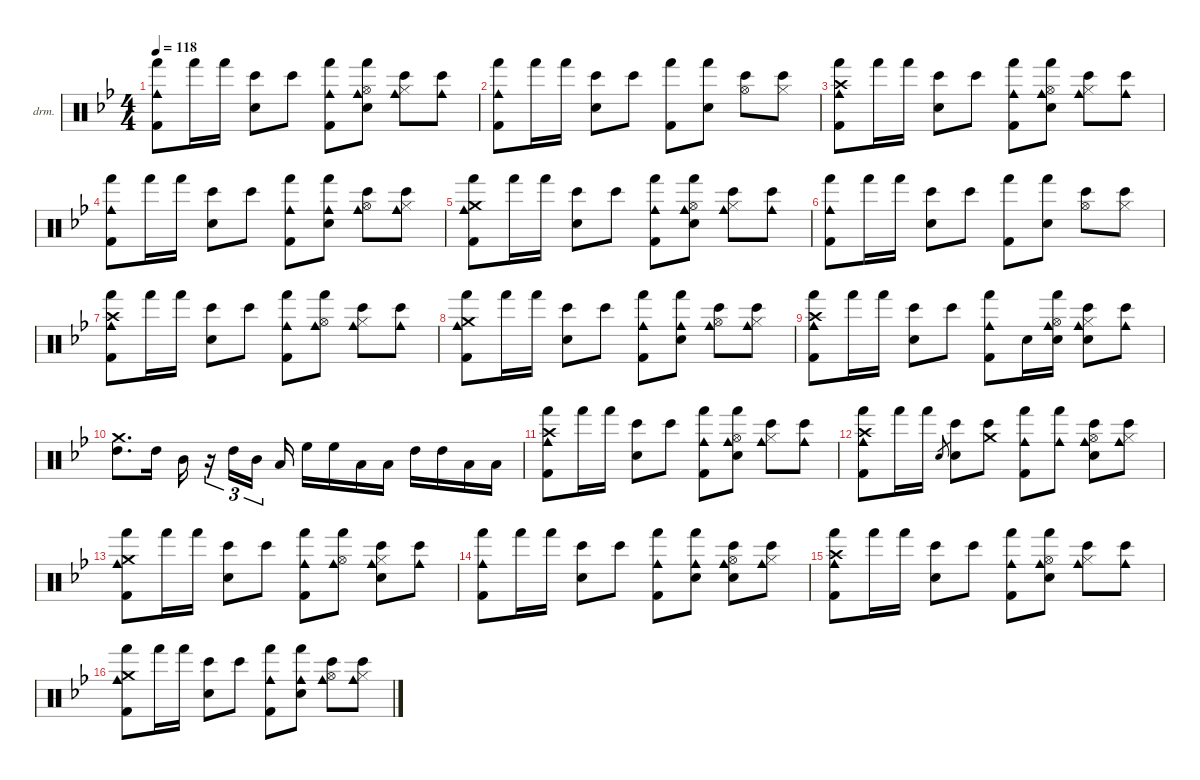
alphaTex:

\defaultSystemsLayout 4
\hideDynamics
\bracketExtendMode nobrackets
\firstSystemTrackNameOrientation horizontal
\otherSystemsTrackNameOrientation horizontal
\track ("Percussion" "drm.") {instrument percussion}
\staff {score}
\articulation defaults
\ts (4 4)
\tempo 118
\clef neutral
\ks gminor
("Cowbell medium (hit)"{acc forcenatural} "Hand (hit)"{acc forcenatural} "Kick (hit) 2"{acc forcenatural}).8{dy f} "Hand (hit)"{acc forcenatural}.16 "Hand (hit)"{acc forcenatural}.16 ("Bongo High (hit)"{acc forcenatural} "Snare (hit) 2"{acc forcenatural}).8 "Bongo High (hit)"{acc forcenatural}.8 ("Cowbell medium (hit)"{acc forcenatural} "Hand (hit)"{acc forcenatural} "Kick (hit) 2"{acc forcenatural}).8 ("Cowbell medium (hit)"{acc forcenatural} "Hand (hit)"{acc forcenatural} "Snare (hit) 2"{acc forcenatural} "Hi-Hat (open)"{acc forcenatural}).8 ("Cowbell medium (hit)"{acc forcenatural} "Bongo High (hit)"{acc forcenatural} "Hi-Hat (closed)"{acc forcenatural}).8 ("Cowbell medium (hit)"{acc forcenatural} "Bongo High (hit)"{acc forcenatural}).8 |
("Cowbell medium (hit)"{acc forcenatural} "Hand (hit)"{acc forcenatural} "Kick (hit) 2"{acc forcenatural}).8 "Hand (hit)"{acc forcenatural}.16 "Hand (hit)"{acc forcenatural}.16 ("Bongo High (hit)"{acc forcenatural} "Snare (hit) 2"{acc forcenatural}).8 "Bongo High (hit)"{acc forcenatural}.8 ("Hand (hit)"{acc forcenatural} "Kick (hit) 2"{acc forcenatural}).8 ("Hand (hit)"{acc forcenatural} "Snare (hit) 2"{acc forcenatural}).8 ("Bongo High (hit)"{acc forcenatural} "Hi-Hat (open)"{acc forcenatural}).8 ("Bongo High (hit)"{acc forcenatural} "Hi-Hat (closed)"{acc forcenatural}).8 |
("Cowbell medium (hit)"{acc forcenatural} "Hand (hit)"{acc forcenatural} "Crash high (hit)"{acc forcenatural} "Kick (hit) 2"{acc forcenatural}).8 "Hand (hit)"{acc forcenatural}.16 "Hand (hit)"{acc forcenatural}.16 ("Bongo High (hit)"{acc forcenatural} "Snare (hit) 2"{acc forcenatural}).8 "Bongo High (hit)"{acc forcenatural}.8 ("Cowbell medium (hit)"{acc forcenatural} "Hand (hit)"{acc forcenatural} "Kick (hit) 2"{acc forcenatural}).8 ("Cowbell medium (hit)"{acc forcenatural} "Hand (hit)"{acc forcenatural} "Snare (hit) 2"{acc forcenatural} "Hi-Hat (open)"{acc forcenatural}).8 ("Cowbell medium (hit)"{acc forcenatural} "Bongo High (hit)"{acc forcenatural} "Hi-Hat (closed)"{acc forcenatural}).8 ("Cowbell medium (hit)"{acc forcenatural} "Bongo High (hit)"{acc forcenatural}).8 |
("Cowbell medium (hit)"{acc forcenatural} "Hand (hit)"{acc forcenatural} "Kick (hit) 2"{acc forcenatural}).8 "Hand (hit)"{acc forcenatural}.16 "Hand (hit)"{acc forcenatural}.16 ("Bongo High (hit)"{acc forcenatural} "Snare (hit) 2"{acc forcenatural}).8 "Bongo High (hit)"{acc forcenatural}.8 ("Cowbell medium (hit)"{acc forcenatural} "Hand (hit)"{acc forcenatural} "Kick (hit) 2"{acc forcenatural}).8 ("Cowbell medium (hit)"{acc forcenatural} "Hand (hit)"{acc forcenatural} "Snare (hit) 2"{acc forcenatural}).8 ("Cowbell medium (hit)"{acc forcenatural} "Bongo High (hit)"{acc forcenatural} "Hi-Hat (open)"{acc forcenatural}).8 ("Cowbell medium (hit)"{acc forcenatural} "Bongo High (hit)"{acc forcenatural} "Hi-Hat (closed)"{acc forcenatural}).8 |
("Cowbell medium (hit)"{acc forcenatural} "Hand (hit)"{acc forcenatural} "Crash medium (hit)"{acc forcenatural} "Kick (hit) 2"{acc forcenatural}).8 "Hand (hit)"{acc forcenatural}.16 "Hand (hit)"{acc forcenatural}.16 ("Bongo High (hit)"{acc forcenatural} "Snare (hit) 2"{acc forcenatural}).8 "Bongo High (hit)"{acc forcenatural}.8 ("Cowbell medium (hit)"{acc forcenatural} "Hand (hit)"{acc forcenatural} "Kick (hit) 2"{acc forcenatural}).8 ("Cowbell medium (hit)"{acc forcenatural} "Hand (hit)"{acc forcenatural} "Snare (hit) 2"{acc forcenatural} "Hi-Hat (open)"{acc forcenatural}).8 ("Cowbell medium (hit)"{acc forcenatural} "Bongo High (hit)"{acc forcenatural} "Hi-Hat (closed)"{acc forcenatural}).8 ("Cowbell medium (hit)"{acc forcenatural} "Bongo High (hit)"{acc forcenatural}).8 |
("Cowbell medium (hit)"{acc forcenatural} "Hand (hit)"{acc forcenatural} "Kick (hit) 2"{acc forcenatural}).8 "Hand (hit)"{acc forcenatural}.16 "Hand (hit)"{acc forcenatural}.16 ("Bongo High (hit)"{acc forcenatural} "Snare (hit) 2"{acc forcenatural}).8 "Bongo High (hit)"{acc forcenatural}.8 ("Hand (hit)"{acc forcenatural} "Kick (hit) 2"{acc forcenatural}).8 ("Hand (hit)"{acc forcenatural} "Snare (hit) 2"{acc forcenatural}).8 ("Bongo High (hit)"{acc forcenatural} "Hi-Hat (open)"{acc forcenatural}).8 ("Bongo High (hit)"{acc forcenatural} "Hi-Hat (closed)"{acc forcenatural}).8 |
("Cowbell medium (hit)"{acc forcenatural} "Hand (hit)"{acc forcenatural} "Crash high (hit)"{acc forcenatural} "Kick (hit) 2"{acc forcenatural}).8 "Hand (hit)"{acc forcenatural}.16 "Hand (hit)"{acc forcenatural}.16 ("Bongo High (hit)"{acc forcenatural} "Snare (hit) 2"{acc forcenatural}).8 "Bongo High (hit)"{acc forcenatural}.8 ("Cowbell medium (hit)"{acc forcenatural} "Hand (hit)"{acc forcenatural} "Kick (hit) 2"{acc forcenatural}).8 ("Cowbell medium (hit)"{acc forcenatural} "Hand (hit)"{acc forcenatural} "Hi-Hat (open)"{acc forcenatural}).8 ("Cowbell medium (hit)"{acc forcenatural} "Bongo High (hit)"{acc forcenatural} "Hi-Hat (closed)"{acc forcenatural}).8 ("Cowbell medium (hit)"{acc forcenatural} "Bongo High (hit)"{acc forcenatural}).8 |
("Cowbell medium (hit)"{acc forcenatural} "Hand (hit)"{acc forcenatural} "Crash medium (hit)"{acc forcenatural} "Kick (hit) 2"{acc forcenatural}).8 "Hand (hit)"{acc forcenatural}.16 "Hand (hit)"{acc forcenatural}.16 ("Bongo High (hit)"{acc forcenatural} "Snare (hit) 2"{acc forcenatural}).8 "Bongo High (hit)"{acc forcenatural}.8 ("Cowbell medium (hit)"{acc forcenatural} "Hand (hit)"{acc forcenatural} "Kick (hit) 2"{acc forcenatural}).8 ("Cowbell medium (hit)"{acc forcenatural} "Hand (hit)"{acc forcenatural} "Snare (hit) 2"{acc forcenatural}).8 ("Cowbell medium (hit)"{acc forcenatural} "Bongo High (hit)"{acc forcenatural} "Hi-Hat (open)"{acc forcenatural}).8 ("Cowbell medium (hit)"{acc forcenatural} "Bongo High (hit)"{acc forcenatural} "Hi-Hat (closed)"{acc forcenatural}).8 |
("Cowbell medium (hit)"{acc forcenatural} "Hand (hit)"{acc forcenatural} "Crash high (hit)"{acc forcenatural} "Kick (hit) 2"{acc forcenatural}).8 "Hand (hit)"{acc forcenatural}.16 "Hand (hit)"{acc forcenatural}.16 ("Bongo High (hit)"{acc forcenatural} "Snare (hit) 2"{acc forcenatural}).8 "Bongo High (hit)"{acc forcenatural}.8 ("Cowbell medium (hit)"{acc forcenatural} "Hand (hit)"{acc forcenatural} "Kick (hit) 2"{acc forcenatural}).8 "Snare (hit) 2"{acc forcenatural}.16 ("Cowbell medium (hit)"{acc forcenatural} "Hand (hit)"{acc forcenatural} "Snare (hit) 2"{acc forcenatural} "Hi-Hat (open)"{acc forcenatural}).16 ("Cowbell medium (hit)"{acc forcenatural} "Bongo High (hit)"{acc forcenatural} "Snare (hit) 2"{acc forcenatural} "Hi-Hat (closed)"{acc forcenatural}).8 ("Cowbell medium (hit)"{acc forcenatural} "Bongo High (hit)"{acc forcenatural}).8 |
("Crash medium (hit)"{acc forcenatural} "High Tom (hit)"{acc forcenatural}).8{d} "High Tom (hit)"{acc forcenatural}.16 "Mid Tom (hit)"{acc forcenatural}.16 r.16{tu (3 2)} "High Tom (hit)"{acc forcenatural}.16{tu (3 2)} "Mid Tom (hit)"{acc forcenatural}.16{tu (3 2)} "Low Tom (hit)"{acc forcenatural}.16 "High Floor Tom (hit)"{acc forcenatural}.16 "High Floor Tom (hit)"{acc forcenatural}.16 "Low Tom (hit)"{acc forcenatural}.16 "Low Tom (hit)"{acc forcenatural}.16 "High Tom (hit)"{acc forcenatural}.16 "High Tom (hit)"{acc forcenatural}.16 "Low Tom (hit)"{acc forcenatural}.16 "Low Tom (hit)"{acc forcenatural}.16 |
("Cowbell medium (hit)"{acc forcenatural} "Hand (hit)"{acc forcenatural} "Crash high (hit)"{acc forcenatural} "Kick (hit) 2"{acc forcenatural}).8 "Hand (hit)"{acc forcenatural}.16 "Hand (hit)"{acc forcenatural}.16 ("Bongo High (hit)"{acc forcenatural} "Snare (hit) 2"{acc forcenatural}).8 "Bongo High (hit)"{acc forcenatural}.8 ("Cowbell medium (hit)"{acc forcenatural} "Hand (hit)"{acc forcenatural} "Kick (hit) 2"{acc forcenatural}).8 ("Cowbell medium (hit)"{acc forcenatural} "Hand (hit)"{acc forcenatural} "Snare (hit) 2"{acc forcenatural} "Hi-Hat (open)"{acc forcenatural}).8 ("Cowbell medium (hit)"{acc forcenatural} "Bongo High (hit)"{acc forcenatural} "Hi-Hat (closed)"{acc forcenatural}).8 ("Cowbell medium (hit)"{acc forcenatural} "Bongo High (hit)"{acc forcenatural}).8 |
("Cowbell medium (hit)"{acc forcenatural} "Hand (hit)"{acc forcenatural} "Crash high (hit)"{acc forcenatural} "Kick (hit) 2"{acc forcenatural}).8 "Hand (hit)"{acc forcenatural}.16 "Hand (hit)"{acc forcenatural}.16 "Electric Snare (hit)"{acc forcenatural}.8{gr dy mf} ("Bongo High (hit)"{acc forcenatural} "Snare (hit) 2"{acc forcenatural}).8{dy f} ("Bongo High (hit)"{acc forcenatural} "Crash medium (hit)"{acc forcenatural}).8 ("Cowbell medium (hit)"{acc forcenatural} "Hand (hit)"{acc forcenatural} "Kick (hit) 2"{acc forcenatural}).8 ("Cowbell medium (hit)"{acc forcenatural} "Hand (hit)"{acc forcenatural}).8 ("Cowbell medium (hit)"{acc forcenatural} "Bongo High (hit)"{acc forcenatural} "Snare (hit) 2"{acc forcenatural} "Hi-Hat (open)"{acc forcenatural}).8 ("Cowbell medium (hit)"{acc forcenatural} "Bongo High (hit)"{acc forcenatural} "Hi-Hat (closed)"{acc forcenatural}).8 |
("Cowbell medium (hit)"{acc forcenatural} "Hand (hit)"{acc forcenatural} "Crash medium (hit)"{acc forcenatural} "Kick (hit) 2"{acc forcenatural}).8 "Hand (hit)"{acc forcenatural}.16 "Hand (hit)"{acc forcenatural}.16 ("Bongo High (hit)"{acc forcenatural} "Snare (hit) 2"{acc forcenatural}).8 "Bongo High (hit)"{acc forcenatural}.8 ("Cowbell medium (hit)"{acc forcenatural} "Hand (hit)"{acc forcenatural} "Kick (hit) 2"{acc forcenatural}).8 ("Cowbell medium (hit)"{acc forcenatural} "Hand (hit)"{acc forcenatural} "Hi-Hat (open)"{acc forcenatural}).8 ("Cowbell medium (hit)"{acc forcenatural} "Bongo High (hit)"{acc forcenatural} "Snare (hit) 2"{acc forcenatural} "Hi-Hat (closed)"{acc forcenatural}).8 ("Cowbell medium (hit)"{acc forcenatural} "Bongo High (hit)"{acc forcenatural}).8 |
("Cowbell medium (hit)"{acc forcenatural} "Hand (hit)"{acc forcenatural} "Kick (hit) 2"{acc forcenatural}).8 "Hand (hit)"{acc forcenatural}.16 "Hand (hit)"{acc forcenatural}.16 ("Bongo High (hit)"{acc forcenatural} "Snare (hit) 2"{acc forcenatural}).8 "Bongo High (hit)"{acc forcenatural}.8 ("Cowbell medium (hit)"{acc forcenatural} "Hand (hit)"{acc forcenatural} "Kick (hit) 2"{acc forcenatural}).8 ("Cowbell medium (hit)"{acc forcenatural} "Hand (hit)"{acc forcenatural} "Snare (hit) 2"{acc forcenatural}).8 ("Cowbell medium (hit)"{acc forcenatural} "Bongo High (hit)"{acc forcenatural} "Snare (hit) 2"{acc forcenatural} "Hi-Hat (open)"{acc forcenatural}).8 ("Cowbell medium (hit)"{acc forcenatural} "Bongo High (hit)"{acc forcenatural} "Hi-Hat (closed)"{acc forcenatural}).8 |
("Cowbell medium (hit)"{acc forcenatural} "Hand (hit)"{acc forcenatural} "Crash high (hit)"{acc forcenatural} "Kick (hit) 2"{acc forcenatural}).8 "Hand (hit)"{acc forcenatural}.16 "Hand (hit)"{acc forcenatural}.16 ("Bongo High (hit)"{acc forcenatural} "Snare (hit) 2"{acc forcenatural}).8 "Bongo High (hit)"{acc forcenatural}.8 ("Cowbell medium (hit)"{acc forcenatural} "Hand (hit)"{acc forcenatural} "Kick (hit) 2"{acc forcenatural}).8 ("Cowbell medium (hit)"{acc forcenatural} "Hand (hit)"{acc forcenatural} "Snare (hit) 2"{acc forcenatural} "Hi-Hat (open)"{acc forcenatural}).8 ("Cowbell medium (hit)"{acc forcenatural} "Bongo High (hit)"{acc forcenatural} "Hi-Hat (closed)"{acc forcenatural}).8 ("Cowbell medium (hit)"{acc forcenatural} "Bongo High (hit)"{acc forcenatural}).8 |
("Cowbell medium (hit)"{acc forcenatural} "Hand (hit)"{acc forcenatural} "Crash medium (hit)"{acc forcenatural} "Kick (hit) 2"{acc forcenatural}).8 "Hand (hit)"{acc forcenatural}.16 "Hand (hit)"{acc forcenatural}.16 ("Bongo High (hit)"{acc forcenatural} "Snare (hit) 2"{acc forcenatural}).8 "Bongo High (hit)"{acc forcenatural}.8 ("Cowbell medium (hit)"{acc forcenatural} "Hand (hit)"{acc forcenatural} "Kick (hit) 2"{acc forcenatural}).8 ("Cowbell medium (hit)"{acc forcenatural} "Hand (hit)"{acc forcenatural} "Snare (hit) 2"{acc forcenatural}).8 ("Cowbell medium (hit)"{acc forcenatural} "Bongo High (hit)"{acc forcenatural} "Hi-Hat (open)"{acc forcenatural}).8 ("Cowbell medium (hit)"{acc forcenatural} "Bongo High (hit)"{acc forcenatural} "Hi-Hat (closed)"{acc forcenatural}).8
